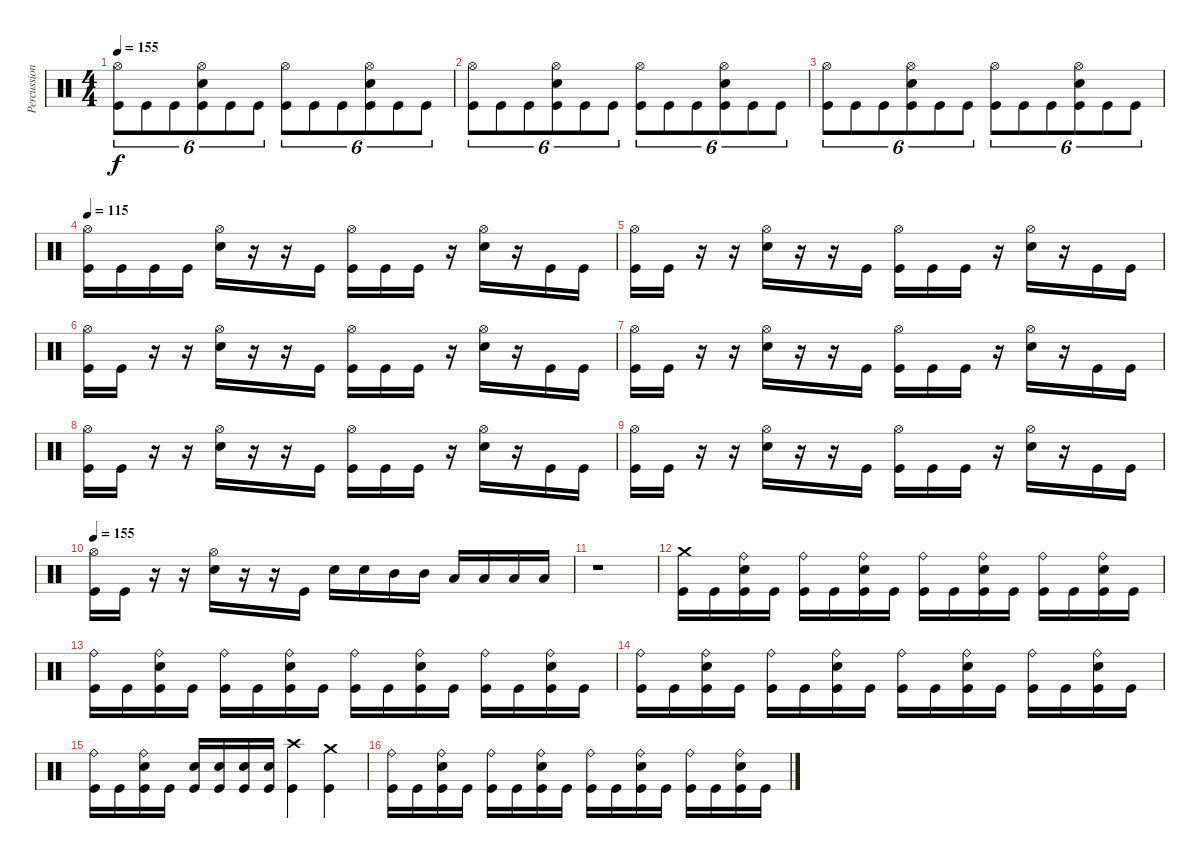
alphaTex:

\track ("Percussion" "Percussion") {instrument percussion}
\staff {score}
\articulation defaults
\ts (4 4)
\tempo 155
\clef neutral
\ks c
("Hi-Hat (open)" "Kick (hit)").8{tu (6 4) dy f} "Kick (hit)".8{tu (6 4)} "Kick (hit)".8{tu (6 4)} ("Hi-Hat (open)" "Snare (hit) 2" "Kick (hit)").8{tu (6 4)} "Kick (hit)".8{tu (6 4)} "Kick (hit)".8{tu (6 4)} ("Hi-Hat (open)" "Kick (hit)").8{tu (6 4)} "Kick (hit)".8{tu (6 4)} "Kick (hit)".8{tu (6 4)} ("Hi-Hat (open)" "Snare (hit) 2" "Kick (hit)").8{tu (6 4)} "Kick (hit)".8{tu (6 4)} "Kick (hit)".8{tu (6 4)} |
("Hi-Hat (open)" "Kick (hit)").8{tu (6 4)} "Kick (hit)".8{tu (6 4)} "Kick (hit)".8{tu (6 4)} ("Hi-Hat (open)" "Snare (hit) 2" "Kick (hit)").8{tu (6 4)} "Kick (hit)".8{tu (6 4)} "Kick (hit)".8{tu (6 4)} ("Hi-Hat (open)" "Kick (hit)").8{tu (6 4)} "Kick (hit)".8{tu (6 4)} "Kick (hit)".8{tu (6 4)} ("Hi-Hat (open)" "Snare (hit) 2" "Kick (hit)").8{tu (6 4)} "Kick (hit)".8{tu (6 4)} "Kick (hit)".8{tu (6 4)} |
("Hi-Hat (open)" "Kick (hit)").8{tu (6 4)} "Kick (hit)".8{tu (6 4)} "Kick (hit)".8{tu (6 4)} ("Hi-Hat (open)" "Snare (hit) 2" "Kick (hit)").8{tu (6 4)} "Kick (hit)".8{tu (6 4)} "Kick (hit)".8{tu (6 4)} ("Hi-Hat (open)" "Kick (hit)").8{tu (6 4)} "Kick (hit)".8{tu (6 4)} "Kick (hit)".8{tu (6 4)} ("Hi-Hat (open)" "Snare (hit) 2" "Kick (hit)").8{tu (6 4)} "Kick (hit)".8{tu (6 4)} "Kick (hit)".8{tu (6 4)} |
\tempo 115
("Hi-Hat (open)" "Kick (hit)").16 "Kick (hit)".16 "Kick (hit)".16 "Kick (hit)".16 ("Hi-Hat (open)" "Snare (hit) 2").16 r.16 r.16 "Kick (hit)".16 ("Hi-Hat (open)" "Kick (hit)").16 "Kick (hit)".16 "Kick (hit)".16 r.16 ("Hi-Hat (open)" "Snare (hit) 2").16 r.16 "Kick (hit)".16 "Kick (hit)".16 |
("Hi-Hat (open)" "Kick (hit)").16 "Kick (hit)".16 r.16 r.16 ("Hi-Hat (open)" "Snare (hit) 2").16 r.16 r.16 "Kick (hit)".16 ("Hi-Hat (open)" "Kick (hit)").16 "Kick (hit)".16 "Kick (hit)".16 r.16 ("Hi-Hat (open)" "Snare (hit) 2").16 r.16 "Kick (hit)".16 "Kick (hit)".16 |
("Hi-Hat (open)" "Kick (hit)").16 "Kick (hit)".16 r.16 r.16 ("Hi-Hat (open)" "Snare (hit) 2").16 r.16 r.16 "Kick (hit)".16 ("Hi-Hat (open)" "Kick (hit)").16 "Kick (hit)".16 "Kick (hit)".16 r.16 ("Hi-Hat (open)" "Snare (hit) 2").16 r.16 "Kick (hit)".16 "Kick (hit)".16 |
("Hi-Hat (open)" "Kick (hit)").16 "Kick (hit)".16 r.16 r.16 ("Hi-Hat (open)" "Snare (hit) 2").16 r.16 r.16 "Kick (hit)".16 ("Hi-Hat (open)" "Kick (hit)").16 "Kick (hit)".16 "Kick (hit)".16 r.16 ("Hi-Hat (open)" "Snare (hit) 2").16 r.16 "Kick (hit)".16 "Kick (hit)".16 |
("Hi-Hat (open)" "Kick (hit)").16 "Kick (hit)".16 r.16 r.16 ("Hi-Hat (open)" "Snare (hit) 2").16 r.16 r.16 "Kick (hit)".16 ("Hi-Hat (open)" "Kick (hit)").16 "Kick (hit)".16 "Kick (hit)".16 r.16 ("Hi-Hat (open)" "Snare (hit) 2").16 r.16 "Kick (hit)".16 "Kick (hit)".16 |
("Hi-Hat (open)" "Kick (hit)").16 "Kick (hit)".16 r.16 r.16 ("Hi-Hat (open)" "Snare (hit) 2").16 r.16 r.16 "Kick (hit)".16 ("Hi-Hat (open)" "Kick (hit)").16 "Kick (hit)".16 "Kick (hit)".16 r.16 ("Hi-Hat (open)" "Snare (hit) 2").16 r.16 "Kick (hit)".16 "Kick (hit)".16 |
\tempo 155
("Hi-Hat (open)" "Kick (hit)").16 "Kick (hit)".16 r.16 r.16 ("Hi-Hat (open)" "Snare (hit) 2").16 r.16 r.16 "Kick (hit)".16 "Snare (hit) 2".16 "Snare (hit) 2".16 "Mid Tom (hit)".16 "Mid Tom (hit)".16 "Low Tom (hit)".16 "Low Tom (hit)".16 "Low Floor Tom (hit)".16 "Low Floor Tom (hit)".16 |
r.1 |
("Crash medium (hit)" "Kick (hit)").16 "Kick (hit)".16 ("Ride (bell)" "Snare (hit) 2" "Kick (hit)").16 "Kick (hit)".16 ("Ride (bell)" "Kick (hit)").16 "Kick (hit)".16 ("Ride (bell)" "Snare (hit) 2" "Kick (hit)").16 "Kick (hit)".16 ("Ride (bell)" "Kick (hit)").16 "Kick (hit)".16 ("Ride (bell)" "Snare (hit) 2" "Kick (hit)").16 "Kick (hit)".16 ("Ride (bell)" "Kick (hit)").16 "Kick (hit)".16 ("Ride (bell)" "Snare (hit) 2" "Kick (hit)").16 "Kick (hit)".16 |
("Ride (bell)" "Kick (hit)").16 "Kick (hit)".16 ("Ride (bell)" "Snare (hit) 2" "Kick (hit)").16 "Kick (hit)".16 ("Ride (bell)" "Kick (hit)").16 "Kick (hit)".16 ("Ride (bell)" "Snare (hit) 2" "Kick (hit)").16 "Kick (hit)".16 ("Ride (bell)" "Kick (hit)").16 "Kick (hit)".16 ("Ride (bell)" "Snare (hit) 2" "Kick (hit)").16 "Kick (hit)".16 ("Ride (bell)" "Kick (hit)").16 "Kick (hit)".16 ("Ride (bell)" "Snare (hit) 2" "Kick (hit)").16 "Kick (hit)".16 |
("Ride (bell)" "Kick (hit)").16 "Kick (hit)".16 ("Ride (bell)" "Snare (hit) 2" "Kick (hit)").16 "Kick (hit)".16 ("Ride (bell)" "Kick (hit)").16 "Kick (hit)".16 ("Ride (bell)" "Snare (hit) 2" "Kick (hit)").16 "Kick (hit)".16 ("Ride (bell)" "Kick (hit)").16 "Kick (hit)".16 ("Ride (bell)" "Snare (hit) 2" "Kick (hit)").16 "Kick (hit)".16 ("Ride (bell)" "Kick (hit)").16 "Kick (hit)".16 ("Ride (bell)" "Snare (hit) 2" "Kick (hit)").16 "Kick (hit)".16 |
("Ride (bell)" "Kick (hit)").16 "Kick (hit)".16 ("Ride (bell)" "Snare (hit) 2" "Kick (hit)").16 "Kick (hit)".16 ("Snare (hit) 2" "Kick (hit)").16 ("Snare (hit) 2" "Kick (hit)").16 ("Snare (hit) 2" "Kick (hit)").16 ("Snare (hit) 2" "Kick (hit)").16 ("Crash high (hit)" "Kick (hit)").4 ("Crash medium (hit)" "Kick (hit)").4 |
("Ride (bell)" "Kick (hit)").16 "Kick (hit)".16 ("Ride (bell)" "Snare (hit) 2" "Kick (hit)").16 "Kick (hit)".16 ("Ride (bell)" "Kick (hit)").16 "Kick (hit)".16 ("Ride (bell)" "Snare (hit) 2" "Kick (hit)").16 "Kick (hit)".16 ("Ride (bell)" "Kick (hit)").16 "Kick (hit)".16 ("Ride (bell)" "Snare (hit) 2" "Kick (hit)").16 "Kick (hit)".16 ("Ride (bell)" "Kick (hit)").16 "Kick (hit)".16 ("Ride (bell)" "Snare (hit) 2" "Kick (hit)").16 "Kick (hit)".16
